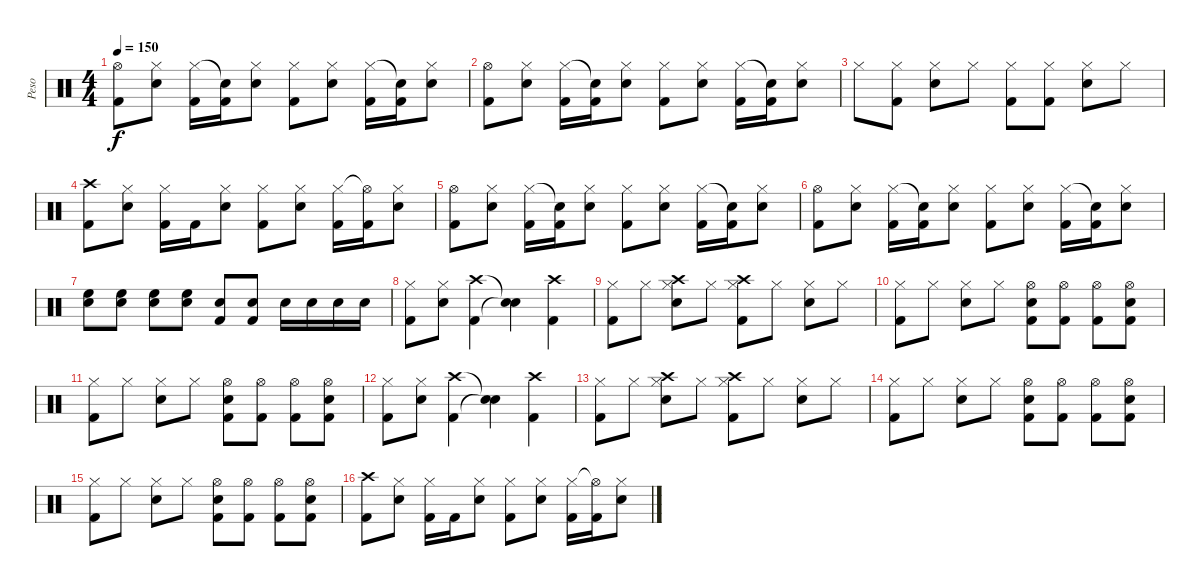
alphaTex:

\track ("Peso" "Peso") {instrument percussion}
\staff {score}
\articulation defaults
\ts (4 4)
\tempo 150
\clef neutral
\ks c
("Hi-Hat (open)" "Kick (hit) 2").8{dy f} ("Hi-Hat (closed)" "Snare (hit) 2").8 ("Hi-Hat (closed)" "Kick (hit) 2").16 ("Snare (hit)"{t} "Kick (hit) 2").16 ("Hi-Hat (closed)" "Snare (hit) 2").8 ("Hi-Hat (closed)" "Kick (hit) 2").8 ("Hi-Hat (closed)" "Snare (hit) 2").8 ("Hi-Hat (closed)" "Kick (hit) 2").16 ("Snare (hit)"{t} "Kick (hit) 2").16 ("Hi-Hat (closed)" "Snare (hit) 2").8 |
("Hi-Hat (open)" "Kick (hit) 2").8 ("Hi-Hat (closed)" "Snare (hit) 2").8 ("Hi-Hat (closed)" "Kick (hit) 2").16 ("Snare (hit)"{t} "Kick (hit) 2").16 ("Hi-Hat (closed)" "Snare (hit) 2").8 ("Hi-Hat (closed)" "Kick (hit) 2").8 ("Hi-Hat (closed)" "Snare (hit) 2").8 ("Hi-Hat (closed)" "Kick (hit) 2").16 ("Snare (hit)"{t} "Kick (hit) 2").16 ("Hi-Hat (closed)" "Snare (hit) 2").8 |
"Hi-Hat (closed)".8 ("Hi-Hat (closed)" "Kick (hit) 2").8 ("Hi-Hat (closed)" "Snare (hit) 2").8 "Hi-Hat (closed)".8 ("Hi-Hat (closed)" "Kick (hit) 2").8 ("Hi-Hat (closed)" "Kick (hit) 2").8 ("Hi-Hat (closed)" "Snare (hit) 2").8 "Hi-Hat (closed)".8 |
("Crash high (hit)" "Kick (hit) 2").8 ("Hi-Hat (closed)" "Snare (hit) 2").8 ("Hi-Hat (closed)" "Kick (hit) 2").16 "Kick (hit) 2".16 ("Hi-Hat (closed)" "Snare (hit) 2").8 ("Hi-Hat (closed)" "Kick (hit) 2").8 ("Hi-Hat (closed)" "Snare (hit) 2").8 ("Hi-Hat (closed)" "Kick (hit) 2").16 ("Hi-Hat (open)"{t} "Kick (hit) 2").16 ("Hi-Hat (closed)" "Snare (hit) 2").8 |
("Hi-Hat (open)" "Kick (hit) 2").8 ("Hi-Hat (closed)" "Snare (hit) 2").8 ("Hi-Hat (closed)" "Kick (hit) 2").16 ("Snare (hit)"{t} "Kick (hit) 2").16 ("Hi-Hat (closed)" "Snare (hit) 2").8 ("Hi-Hat (closed)" "Kick (hit) 2").8 ("Hi-Hat (closed)" "Snare (hit) 2").8 ("Hi-Hat (closed)" "Kick (hit) 2").16 ("Snare (hit)"{t} "Kick (hit) 2").16 ("Hi-Hat (closed)" "Snare (hit) 2").8 |
("Hi-Hat (open)" "Kick (hit) 2").8 ("Hi-Hat (closed)" "Snare (hit) 2").8 ("Hi-Hat (closed)" "Kick (hit) 2").16 ("Snare (hit)"{t} "Kick (hit) 2").16 ("Hi-Hat (closed)" "Snare (hit) 2").8 ("Hi-Hat (closed)" "Kick (hit) 2").8 ("Hi-Hat (closed)" "Snare (hit) 2").8 ("Hi-Hat (closed)" "Kick (hit) 2").16 ("Snare (hit)"{t} "Kick (hit) 2").16 ("Hi-Hat (closed)" "Snare (hit) 2").8 |
("High Floor Tom (hit)" "Snare (hit) 2").8 ("High Floor Tom (hit)" "Snare (hit) 2").8 ("High Floor Tom (hit)" "Snare (hit) 2").8 ("High Floor Tom (hit)" "Snare (hit) 2").8 ("Kick (hit) 2" "Snare (hit) 2").8 ("Kick (hit) 2" "Snare (hit) 2").8 "Snare (hit) 2".16 "Snare (hit) 2".16 "Snare (hit) 2".16 "Snare (hit) 2".16 |
("Hi-Hat (closed)" "Kick (hit) 2").8 ("Hi-Hat (closed)" "Snare (hit) 2").8 ("Crash high (hit)" "Kick (hit) 2").4 ("Snare (hit)"{t} "Snare (hit)"{t}).4 ("Crash high (hit)" "Kick (hit) 2").4 |
("Hi-Hat (closed)" "Kick (hit) 2").8 "Hi-Hat (closed)".8 ("Crash high (hit)" "Hi-Hat (closed)" "Snare (hit) 2").8 "Hi-Hat (closed)".8 ("Crash high (hit)" "Hi-Hat (closed)" "Kick (hit) 2").8 "Hi-Hat (closed)".8 ("Hi-Hat (closed)" "Snare (hit) 2").8 "Hi-Hat (closed)".8 |
("Hi-Hat (closed)" "Kick (hit) 2").8 "Hi-Hat (closed)".8 ("Hi-Hat (closed)" "Snare (hit) 2").8 "Hi-Hat (closed)".8 ("Hi-Hat (open)" "Snare (hit) 2" "Kick (hit) 2").8 ("Hi-Hat (open)" "Kick (hit) 2").8 ("Hi-Hat (open)" "Kick (hit) 2").8 ("Hi-Hat (open)" "Snare (hit) 2" "Kick (hit) 2").8 |
("Hi-Hat (closed)" "Kick (hit) 2").8 "Hi-Hat (closed)".8 ("Hi-Hat (closed)" "Snare (hit) 2").8 "Hi-Hat (closed)".8 ("Hi-Hat (open)" "Snare (hit) 2" "Kick (hit) 2").8 ("Hi-Hat (open)" "Kick (hit) 2").8 ("Hi-Hat (open)" "Kick (hit) 2").8 ("Hi-Hat (open)" "Snare (hit) 2" "Kick (hit) 2").8 |
("Hi-Hat (closed)" "Kick (hit) 2").8 ("Hi-Hat (closed)" "Snare (hit) 2").8 ("Crash high (hit)" "Kick (hit) 2").4 ("Snare (hit)"{t} "Snare (hit)"{t}).4 ("Crash high (hit)" "Kick (hit) 2").4 |
("Hi-Hat (closed)" "Kick (hit) 2").8 "Hi-Hat (closed)".8 ("Crash high (hit)" "Hi-Hat (closed)" "Snare (hit) 2").8 "Hi-Hat (closed)".8 ("Crash high (hit)" "Hi-Hat (closed)" "Kick (hit) 2").8 "Hi-Hat (closed)".8 ("Hi-Hat (closed)" "Snare (hit) 2").8 "Hi-Hat (closed)".8 |
("Hi-Hat (closed)" "Kick (hit) 2").8 "Hi-Hat (closed)".8 ("Hi-Hat (closed)" "Snare (hit) 2").8 "Hi-Hat (closed)".8 ("Hi-Hat (open)" "Snare (hit) 2" "Kick (hit) 2").8 ("Hi-Hat (open)" "Kick (hit) 2").8 ("Hi-Hat (open)" "Kick (hit) 2").8 ("Hi-Hat (open)" "Snare (hit) 2" "Kick (hit) 2").8 |
("Hi-Hat (closed)" "Kick (hit) 2").8 "Hi-Hat (closed)".8 ("Hi-Hat (closed)" "Snare (hit) 2").8 "Hi-Hat (closed)".8 ("Hi-Hat (open)" "Snare (hit) 2" "Kick (hit) 2").8 ("Hi-Hat (open)" "Kick (hit) 2").8 ("Hi-Hat (open)" "Kick (hit) 2").8 ("Hi-Hat (open)" "Snare (hit) 2" "Kick (hit) 2").8 |
("Crash high (hit)" "Kick (hit) 2").8 ("Hi-Hat (closed)" "Snare (hit) 2").8 ("Hi-Hat (closed)" "Kick (hit) 2").16 "Kick (hit) 2".16 ("Hi-Hat (closed)" "Snare (hit) 2").8 ("Hi-Hat (closed)" "Kick (hit) 2").8 ("Hi-Hat (closed)" "Snare (hit) 2").8 ("Hi-Hat (closed)" "Kick (hit) 2").16 ("Hi-Hat (open)"{t} "Kick (hit) 2").16 ("Hi-Hat (closed)" "Snare (hit) 2").8
